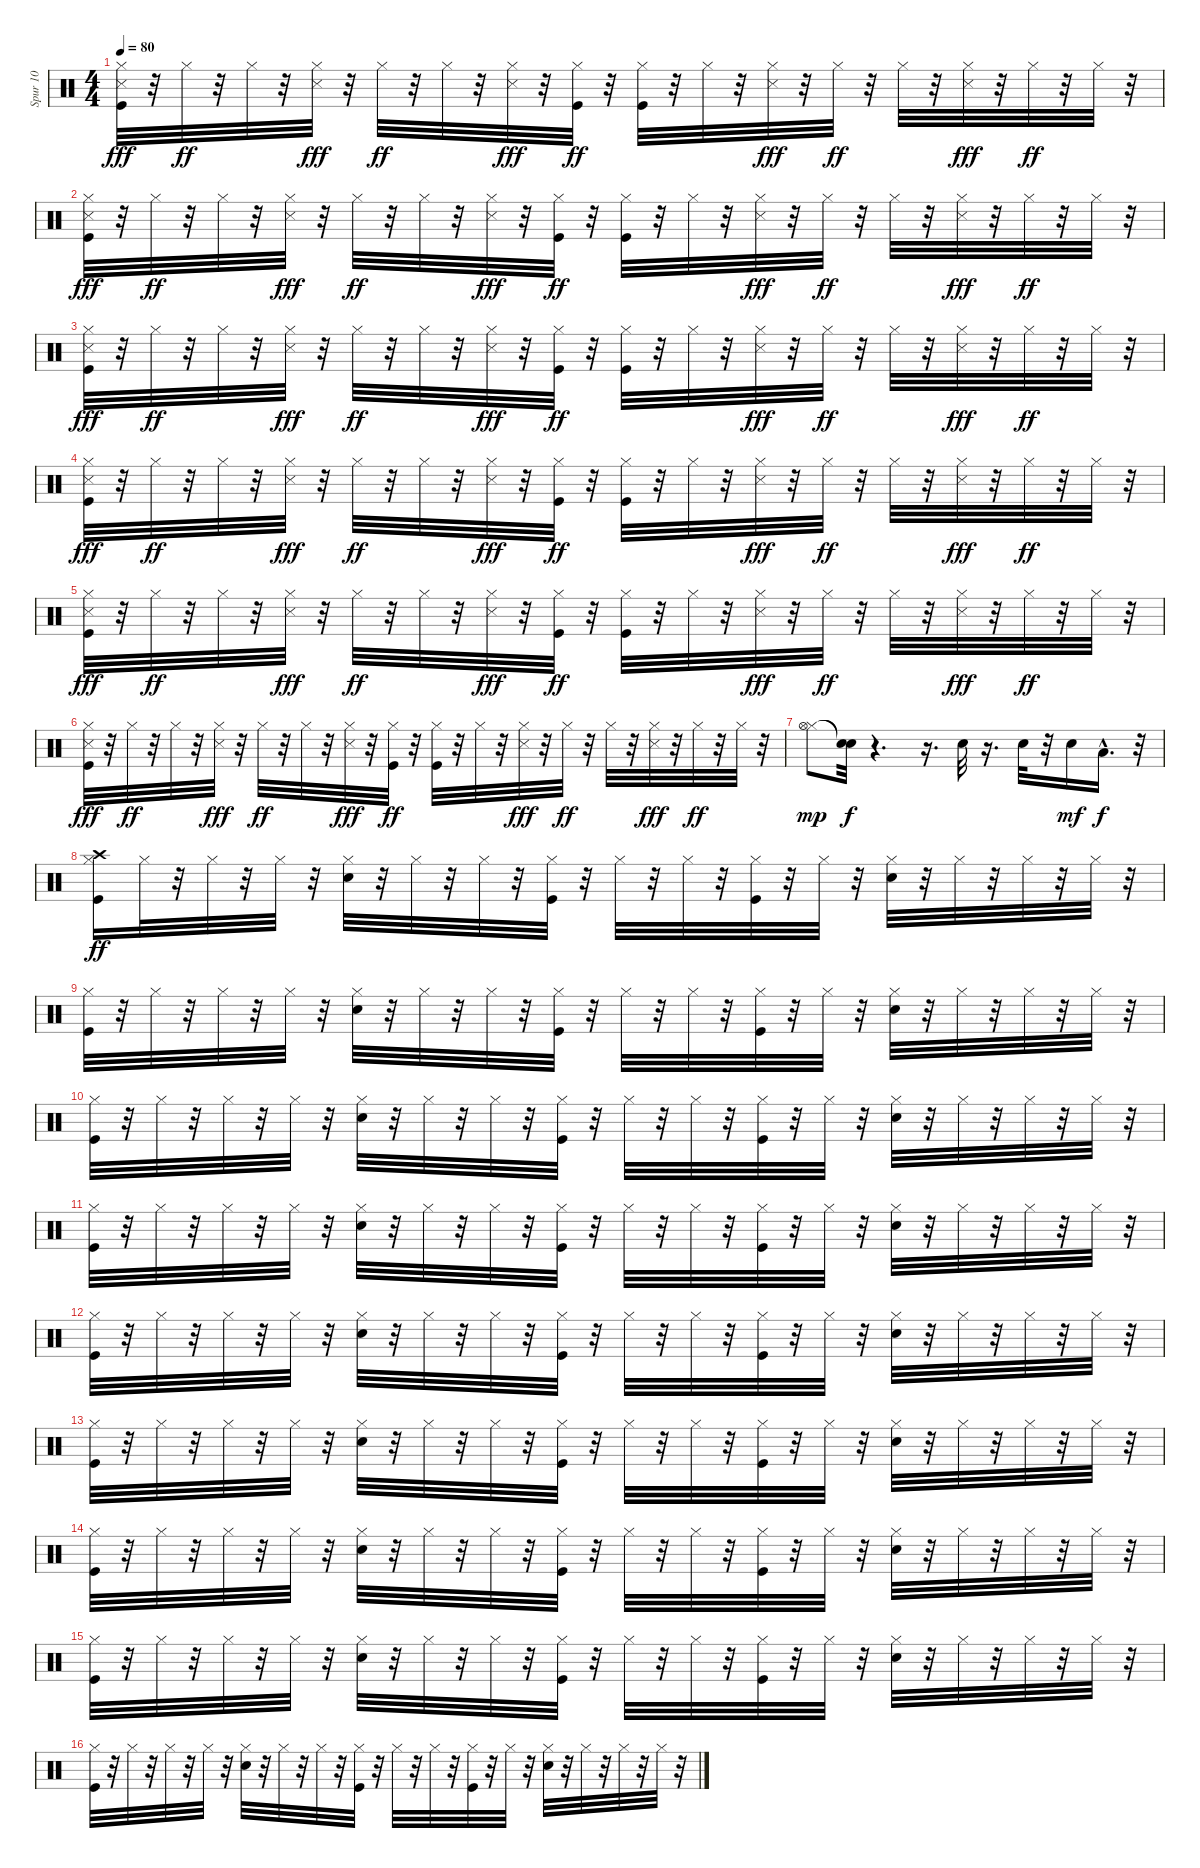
\track ("Spur 10" "Spur 10") {instrument percussion}
\staff {score}
\articulation defaults
\ts (4 4)
\tempo 80
\clef neutral
\ks c
("Kick (hit)" "Hi-Hat (closed)" "Snare (side stick) 3").32{dy fff} r.32 "Hi-Hat (closed)".32{dy ff} r.32 "Hi-Hat (closed)".32 r.32 ("Hi-Hat (closed)" "Snare (side stick) 3").32{dy fff} r.32 "Hi-Hat (closed)".32{dy ff} r.32 "Hi-Hat (closed)".32 r.32 ("Hi-Hat (closed)" "Snare (side stick) 3").32{dy fff} r.32 ("Kick (hit)" "Hi-Hat (closed)").32{dy ff} r.32 ("Kick (hit)" "Hi-Hat (closed)").32 r.32 "Hi-Hat (closed)".32 r.32 ("Hi-Hat (closed)" "Snare (side stick) 3").32{dy fff} r.32 "Hi-Hat (closed)".32{dy ff} r.32 "Hi-Hat (closed)".32 r.32 ("Hi-Hat (closed)" "Snare (side stick) 3").32{dy fff} r.32 "Hi-Hat (closed)".32{dy ff} r.32 "Hi-Hat (closed)".32 r.32 |
("Kick (hit)" "Hi-Hat (closed)" "Snare (side stick) 3").32{dy fff} r.32 "Hi-Hat (closed)".32{dy ff} r.32 "Hi-Hat (closed)".32 r.32 ("Hi-Hat (closed)" "Snare (side stick) 3").32{dy fff} r.32 "Hi-Hat (closed)".32{dy ff} r.32 "Hi-Hat (closed)".32 r.32 ("Hi-Hat (closed)" "Snare (side stick) 3").32{dy fff} r.32 ("Kick (hit)" "Hi-Hat (closed)").32{dy ff} r.32 ("Kick (hit)" "Hi-Hat (closed)").32 r.32 "Hi-Hat (closed)".32 r.32 ("Hi-Hat (closed)" "Snare (side stick) 3").32{dy fff} r.32 "Hi-Hat (closed)".32{dy ff} r.32 "Hi-Hat (closed)".32 r.32 ("Hi-Hat (closed)" "Snare (side stick) 3").32{dy fff} r.32 "Hi-Hat (closed)".32{dy ff} r.32 "Hi-Hat (closed)".32 r.32 |
("Kick (hit)" "Hi-Hat (closed)" "Snare (side stick) 3").32{dy fff} r.32 "Hi-Hat (closed)".32{dy ff} r.32 "Hi-Hat (closed)".32 r.32 ("Hi-Hat (closed)" "Snare (side stick) 3").32{dy fff} r.32 "Hi-Hat (closed)".32{dy ff} r.32 "Hi-Hat (closed)".32 r.32 ("Hi-Hat (closed)" "Snare (side stick) 3").32{dy fff} r.32 ("Kick (hit)" "Hi-Hat (closed)").32{dy ff} r.32 ("Kick (hit)" "Hi-Hat (closed)").32 r.32 "Hi-Hat (closed)".32 r.32 ("Hi-Hat (closed)" "Snare (side stick) 3").32{dy fff} r.32 "Hi-Hat (closed)".32{dy ff} r.32 "Hi-Hat (closed)".32 r.32 ("Hi-Hat (closed)" "Snare (side stick) 3").32{dy fff} r.32 "Hi-Hat (closed)".32{dy ff} r.32 "Hi-Hat (closed)".32 r.32 |
("Kick (hit)" "Hi-Hat (closed)" "Snare (side stick) 3").32{dy fff} r.32 "Hi-Hat (closed)".32{dy ff} r.32 "Hi-Hat (closed)".32 r.32 ("Hi-Hat (closed)" "Snare (side stick) 3").32{dy fff} r.32 "Hi-Hat (closed)".32{dy ff} r.32 "Hi-Hat (closed)".32 r.32 ("Hi-Hat (closed)" "Snare (side stick) 3").32{dy fff} r.32 ("Kick (hit)" "Hi-Hat (closed)").32{dy ff} r.32 ("Kick (hit)" "Hi-Hat (closed)").32 r.32 "Hi-Hat (closed)".32 r.32 ("Hi-Hat (closed)" "Snare (side stick) 3").32{dy fff} r.32 "Hi-Hat (closed)".32{dy ff} r.32 "Hi-Hat (closed)".32 r.32 ("Hi-Hat (closed)" "Snare (side stick) 3").32{dy fff} r.32 "Hi-Hat (closed)".32{dy ff} r.32 "Hi-Hat (closed)".32 r.32 |
("Kick (hit)" "Hi-Hat (closed)" "Snare (side stick) 3").32{dy fff} r.32 "Hi-Hat (closed)".32{dy ff} r.32 "Hi-Hat (closed)".32 r.32 ("Hi-Hat (closed)" "Snare (side stick) 3").32{dy fff} r.32 "Hi-Hat (closed)".32{dy ff} r.32 "Hi-Hat (closed)".32 r.32 ("Hi-Hat (closed)" "Snare (side stick) 3").32{dy fff} r.32 ("Kick (hit)" "Hi-Hat (closed)").32{dy ff} r.32 ("Kick (hit)" "Hi-Hat (closed)").32 r.32 "Hi-Hat (closed)".32 r.32 ("Hi-Hat (closed)" "Snare (side stick) 3").32{dy fff} r.32 "Hi-Hat (closed)".32{dy ff} r.32 "Hi-Hat (closed)".32 r.32 ("Hi-Hat (closed)" "Snare (side stick) 3").32{dy fff} r.32 "Hi-Hat (closed)".32{dy ff} r.32 "Hi-Hat (closed)".32 r.32 |
("Kick (hit)" "Hi-Hat (closed)" "Snare (side stick) 3").32{dy fff} r.32 "Hi-Hat (closed)".32{dy ff} r.32 "Hi-Hat (closed)".32 r.32 ("Hi-Hat (closed)" "Snare (side stick) 3").32{dy fff} r.32 "Hi-Hat (closed)".32{dy ff} r.32 "Hi-Hat (closed)".32 r.32 ("Hi-Hat (closed)" "Snare (side stick) 3").32{dy fff} r.32 ("Kick (hit)" "Hi-Hat (closed)").32{dy ff} r.32 ("Kick (hit)" "Hi-Hat (closed)").32 r.32 "Hi-Hat (closed)".32 r.32 ("Hi-Hat (closed)" "Snare (side stick) 3").32{dy fff} r.32 "Hi-Hat (closed)".32{dy ff} r.32 "Hi-Hat (closed)".32 r.32 ("Hi-Hat (closed)" "Snare (side stick) 3").32{dy fff} r.32 "Hi-Hat (closed)".32{dy ff} r.32 "Hi-Hat (closed)".32 r.32 |
("Hi-Hat (closed)" "Hi-Hat (open)").8{dy mp} ("Snare (hit)"{t} "Snare (hit)"{t}).32{dy f} r.4{d} r.16{d} "Snare (hit) 2".32 r.16{d} "Snare (hit) 2".32 r.32 "Snare (hit) 2".16{dy mf} "Low Floor Tom (hit)"{hac}.16{d dy f} r.32 |
("Kick (hit)" "Hi-Hat (closed)" "Crash high (hit)").16{dy ff} "Hi-Hat (closed)".32 r.32 "Hi-Hat (closed)".32 r.32 "Hi-Hat (closed)".32 r.32 ("Snare (hit) 2" "Hi-Hat (closed)").32 r.32 "Hi-Hat (closed)".32 r.32 "Hi-Hat (closed)".32 r.32 ("Kick (hit)" "Hi-Hat (closed)").32 r.32 "Hi-Hat (closed)".32 r.32 "Hi-Hat (closed)".32 r.32 ("Kick (hit)" "Hi-Hat (closed)").32 r.32 "Hi-Hat (closed)".32 r.32 ("Snare (hit) 2" "Hi-Hat (closed)").32 r.32 "Hi-Hat (closed)".32 r.32 "Hi-Hat (closed)".32 r.32 "Hi-Hat (closed)".32 r.32 |
("Kick (hit)" "Hi-Hat (closed)").32 r.32 "Hi-Hat (closed)".32 r.32 "Hi-Hat (closed)".32 r.32 "Hi-Hat (closed)".32 r.32 ("Snare (hit) 2" "Hi-Hat (closed)").32 r.32 "Hi-Hat (closed)".32 r.32 "Hi-Hat (closed)".32 r.32 ("Kick (hit)" "Hi-Hat (closed)").32 r.32 "Hi-Hat (closed)".32 r.32 "Hi-Hat (closed)".32 r.32 ("Kick (hit)" "Hi-Hat (closed)").32 r.32 "Hi-Hat (closed)".32 r.32 ("Snare (hit) 2" "Hi-Hat (closed)").32 r.32 "Hi-Hat (closed)".32 r.32 "Hi-Hat (closed)".32 r.32 "Hi-Hat (closed)".32 r.32 |
("Kick (hit)" "Hi-Hat (closed)").32 r.32 "Hi-Hat (closed)".32 r.32 "Hi-Hat (closed)".32 r.32 "Hi-Hat (closed)".32 r.32 ("Snare (hit) 2" "Hi-Hat (closed)").32 r.32 "Hi-Hat (closed)".32 r.32 "Hi-Hat (closed)".32 r.32 ("Kick (hit)" "Hi-Hat (closed)").32 r.32 "Hi-Hat (closed)".32 r.32 "Hi-Hat (closed)".32 r.32 ("Kick (hit)" "Hi-Hat (closed)").32 r.32 "Hi-Hat (closed)".32 r.32 ("Snare (hit) 2" "Hi-Hat (closed)").32 r.32 "Hi-Hat (closed)".32 r.32 "Hi-Hat (closed)".32 r.32 "Hi-Hat (closed)".32 r.32 |
("Kick (hit)" "Hi-Hat (closed)").32 r.32 "Hi-Hat (closed)".32 r.32 "Hi-Hat (closed)".32 r.32 "Hi-Hat (closed)".32 r.32 ("Snare (hit) 2" "Hi-Hat (closed)").32 r.32 "Hi-Hat (closed)".32 r.32 "Hi-Hat (closed)".32 r.32 ("Kick (hit)" "Hi-Hat (closed)").32 r.32 "Hi-Hat (closed)".32 r.32 "Hi-Hat (closed)".32 r.32 ("Kick (hit)" "Hi-Hat (closed)").32 r.32 "Hi-Hat (closed)".32 r.32 ("Snare (hit) 2" "Hi-Hat (closed)").32 r.32 "Hi-Hat (closed)".32 r.32 "Hi-Hat (closed)".32 r.32 "Hi-Hat (closed)".32 r.32 |
("Kick (hit)" "Hi-Hat (closed)").32 r.32 "Hi-Hat (closed)".32 r.32 "Hi-Hat (closed)".32 r.32 "Hi-Hat (closed)".32 r.32 ("Snare (hit) 2" "Hi-Hat (closed)").32 r.32 "Hi-Hat (closed)".32 r.32 "Hi-Hat (closed)".32 r.32 ("Kick (hit)" "Hi-Hat (closed)").32 r.32 "Hi-Hat (closed)".32 r.32 "Hi-Hat (closed)".32 r.32 ("Kick (hit)" "Hi-Hat (closed)").32 r.32 "Hi-Hat (closed)".32 r.32 ("Snare (hit) 2" "Hi-Hat (closed)").32 r.32 "Hi-Hat (closed)".32 r.32 "Hi-Hat (closed)".32 r.32 "Hi-Hat (closed)".32 r.32 |
("Kick (hit)" "Hi-Hat (closed)").32 r.32 "Hi-Hat (closed)".32 r.32 "Hi-Hat (closed)".32 r.32 "Hi-Hat (closed)".32 r.32 ("Snare (hit) 2" "Hi-Hat (closed)").32 r.32 "Hi-Hat (closed)".32 r.32 "Hi-Hat (closed)".32 r.32 ("Kick (hit)" "Hi-Hat (closed)").32 r.32 "Hi-Hat (closed)".32 r.32 "Hi-Hat (closed)".32 r.32 ("Kick (hit)" "Hi-Hat (closed)").32 r.32 "Hi-Hat (closed)".32 r.32 ("Snare (hit) 2" "Hi-Hat (closed)").32 r.32 "Hi-Hat (closed)".32 r.32 "Hi-Hat (closed)".32 r.32 "Hi-Hat (closed)".32 r.32 |
("Kick (hit)" "Hi-Hat (closed)").32 r.32 "Hi-Hat (closed)".32 r.32 "Hi-Hat (closed)".32 r.32 "Hi-Hat (closed)".32 r.32 ("Snare (hit) 2" "Hi-Hat (closed)").32 r.32 "Hi-Hat (closed)".32 r.32 "Hi-Hat (closed)".32 r.32 ("Kick (hit)" "Hi-Hat (closed)").32 r.32 "Hi-Hat (closed)".32 r.32 "Hi-Hat (closed)".32 r.32 ("Kick (hit)" "Hi-Hat (closed)").32 r.32 "Hi-Hat (closed)".32 r.32 ("Snare (hit) 2" "Hi-Hat (closed)").32 r.32 "Hi-Hat (closed)".32 r.32 "Hi-Hat (closed)".32 r.32 "Hi-Hat (closed)".32 r.32 |
("Kick (hit)" "Hi-Hat (closed)").32 r.32 "Hi-Hat (closed)".32 r.32 "Hi-Hat (closed)".32 r.32 "Hi-Hat (closed)".32 r.32 ("Snare (hit) 2" "Hi-Hat (closed)").32 r.32 "Hi-Hat (closed)".32 r.32 "Hi-Hat (closed)".32 r.32 ("Kick (hit)" "Hi-Hat (closed)").32 r.32 "Hi-Hat (closed)".32 r.32 "Hi-Hat (closed)".32 r.32 ("Kick (hit)" "Hi-Hat (closed)").32 r.32 "Hi-Hat (closed)".32 r.32 ("Snare (hit) 2" "Hi-Hat (closed)").32 r.32 "Hi-Hat (closed)".32 r.32 "Hi-Hat (closed)".32 r.32 "Hi-Hat (closed)".32 r.32 |
("Kick (hit)" "Hi-Hat (closed)").32 r.32 "Hi-Hat (closed)".32 r.32 "Hi-Hat (closed)".32 r.32 "Hi-Hat (closed)".32 r.32 ("Snare (hit) 2" "Hi-Hat (closed)").32 r.32 "Hi-Hat (closed)".32 r.32 "Hi-Hat (closed)".32 r.32 ("Kick (hit)" "Hi-Hat (closed)").32 r.32 "Hi-Hat (closed)".32 r.32 "Hi-Hat (closed)".32 r.32 ("Kick (hit)" "Hi-Hat (closed)").32 r.32 "Hi-Hat (closed)".32 r.32 ("Snare (hit) 2" "Hi-Hat (closed)").32 r.32 "Hi-Hat (closed)".32 r.32 "Hi-Hat (closed)".32 r.32 "Hi-Hat (closed)".32 r.32
